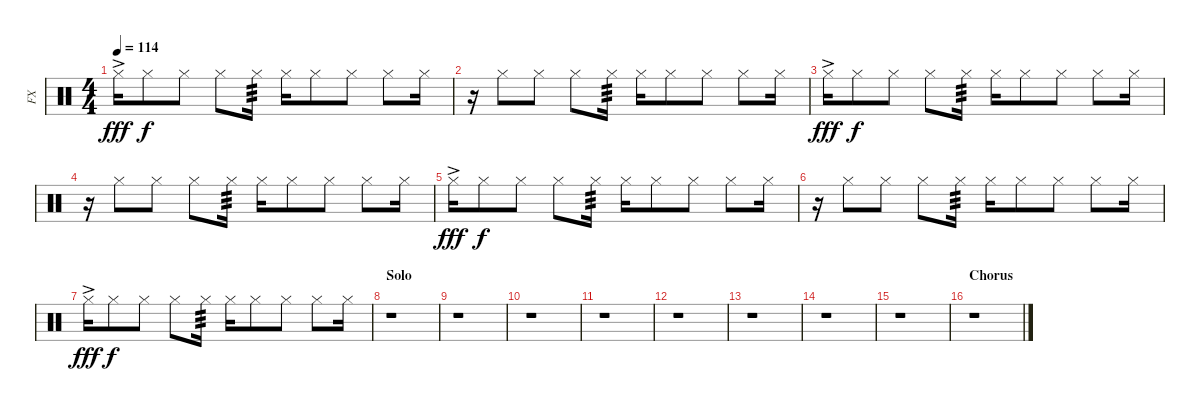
\track ("FX" "FX") {instrument percussion}
\staff {score}
\articulation defaults
\ts (4 4)
\tempo 114
\clef neutral
\ks c "Hi-Hat (closed)"{ac}.16{dy fff} "Hi-Hat (closed)".8{dy f} "Hi-Hat (closed)".8 "Hi-Hat (closed)".8 "Hi-Hat (closed)".16{tp 3} "Hi-Hat (closed)".16 "Hi-Hat (closed)".8 "Hi-Hat (closed)".8 "Hi-Hat (closed)".8 "Hi-Hat (closed)".16
|
r.16 "Hi-Hat (closed)".8 "Hi-Hat (closed)".8 "Hi-Hat (closed)".8 "Hi-Hat (closed)".16{tp 3} "Hi-Hat (closed)".16 "Hi-Hat (closed)".8 "Hi-Hat (closed)".8 "Hi-Hat (closed)".8 "Hi-Hat (closed)".16 |
"Hi-Hat (closed)"{ac}.16{dy fff} "Hi-Hat (closed)".8{dy f} "Hi-Hat (closed)".8 "Hi-Hat (closed)".8 "Hi-Hat (closed)".16{tp 3} "Hi-Hat (closed)".16 "Hi-Hat (closed)".8 "Hi-Hat (closed)".8 "Hi-Hat (closed)".8 "Hi-Hat (closed)".16 |
r.16 "Hi-Hat (closed)".8 "Hi-Hat (closed)".8 "Hi-Hat (closed)".8 "Hi-Hat (closed)".16{tp 3} "Hi-Hat (closed)".16 "Hi-Hat (closed)".8 "Hi-Hat (closed)".8 "Hi-Hat (closed)".8 "Hi-Hat (closed)".16 |
"Hi-Hat (closed)"{ac}.16{dy fff} "Hi-Hat (closed)".8{dy f} "Hi-Hat (closed)".8 "Hi-Hat (closed)".8 "Hi-Hat (closed)".16{tp 3} "Hi-Hat (closed)".16 "Hi-Hat (closed)".8 "Hi-Hat (closed)".8 "Hi-Hat (closed)".8 "Hi-Hat (closed)".16 |
r.16 "Hi-Hat (closed)".8 "Hi-Hat (closed)".8 "Hi-Hat (closed)".8 "Hi-Hat (closed)".16{tp 3} "Hi-Hat (closed)".16 "Hi-Hat (closed)".8 "Hi-Hat (closed)".8 "Hi-Hat (closed)".8 "Hi-Hat (closed)".16 |
"Hi-Hat (closed)"{ac}.16{dy fff} "Hi-Hat (closed)".8{dy f} "Hi-Hat (closed)".8 "Hi-Hat (closed)".8 "Hi-Hat (closed)".16{tp 3} "Hi-Hat (closed)".16 "Hi-Hat (closed)".8 "Hi-Hat (closed)".8 "Hi-Hat (closed)".8 "Hi-Hat (closed)".16 |
\section ("" "Solo")
r.1 |
r.1 |
r.1 |
r.1 |
r.1 |
r.1 |
r.1 |
r.1 |
\section ("" "Chorus")
r.1
